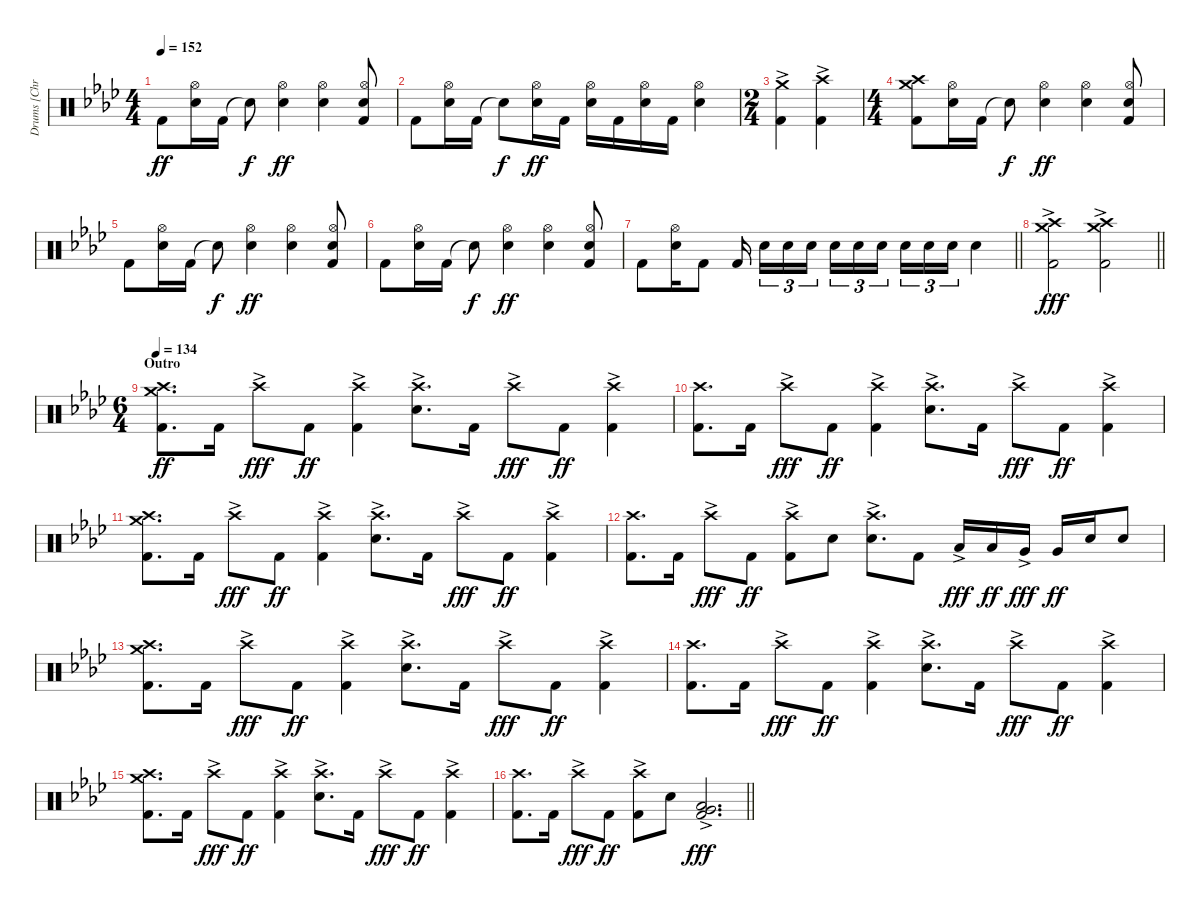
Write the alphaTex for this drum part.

\track ("Drums [Chris Hornbrook]" "Drums [Chr") {instrument percussion}
\staff {score}
\articulation defaults
\ts (4 4)
\tempo 152
\clef neutral
\ks fminor "Kick (hit) 2".8{dy ff}
("Hi-Hat (open)" "Electric Snare (hit)").16 "Kick (hit) 2".16 "Snare (hit)"{t}.8{dy f} ("Hi-Hat (open)" "Electric Snare (hit)").4{dy ff} ("Hi-Hat (open)" "Electric Snare (hit)").4 ("Hi-Hat (open)" "Electric Snare (hit)" "Kick (hit) 2").8 |
"Kick (hit) 2".8 ("Hi-Hat (open)" "Electric Snare (hit)").16 "Kick (hit) 2".16 "Snare (hit)"{t}.8{dy f} ("Hi-Hat (open)" "Electric Snare (hit)").16{dy ff} "Kick (hit) 2".16 ("Hi-Hat (open)" "Electric Snare (hit)").16 "Kick (hit) 2".16 ("Hi-Hat (open)" "Electric Snare (hit)").16 "Kick (hit) 2".16 ("Hi-Hat (open)" "Electric Snare (hit)").4 |
\ts (2 4)
("Crash medium (hit)"{ac} "Kick (hit) 2").4 ("Crash high (hit)"{ac} "Kick (hit) 2").4 |
\ts (4 4)
("Crash medium (hit)" "Crash high (hit)" "Kick (hit) 2").8 ("Hi-Hat (open)" "Electric Snare (hit)").16 "Kick (hit) 2".16 "Snare (hit)"{t}.8{dy f} ("Hi-Hat (open)" "Electric Snare (hit)").4{dy ff} ("Hi-Hat (open)" "Electric Snare (hit)").4 ("Hi-Hat (open)" "Electric Snare (hit)" "Kick (hit) 2").8 |
"Kick (hit) 2".8 ("Hi-Hat (open)" "Electric Snare (hit)").16 "Kick (hit) 2".16 "Snare (hit)"{t}.8{dy f} ("Hi-Hat (open)" "Electric Snare (hit)").4{dy ff} ("Hi-Hat (open)" "Electric Snare (hit)").4 ("Hi-Hat (open)" "Electric Snare (hit)" "Kick (hit) 2").8 |
"Kick (hit) 2".8 ("Hi-Hat (open)" "Electric Snare (hit)").16 "Kick (hit) 2".16 "Snare (hit)"{t}.8{dy f} ("Hi-Hat (open)" "Electric Snare (hit)").4{dy ff} ("Hi-Hat (open)" "Electric Snare (hit)").4 ("Hi-Hat (open)" "Electric Snare (hit)" "Kick (hit) 2").8 |
\barLineRight lightlight "Kick (hit) 2".8
("Hi-Hat (open)" "Electric Snare (hit)").16 "Kick (hit) 2".8 "Kick (hit) 2".16{beam splitsecondary} "Electric Snare (hit)".16{tu (3 2)} "Electric Snare (hit)".16{tu (3 2)} "Electric Snare (hit)".16{tu (3 2)} "Electric Snare (hit)".16{tu (3 2)} "Electric Snare (hit)".16{tu (3 2)} "Electric Snare (hit)".16{tu (3 2) beam splitsecondary} "Electric Snare (hit)".16{tu (3 2)} "Electric Snare (hit)".16{tu (3 2)} "Electric Snare (hit)".16{tu (3 2)} "Electric Snare (hit)".4 |
\section ("" "")
\barLineRight lightlight
("Crash medium (hit)"{ac} "Crash high (hit)"{ac} "Kick (hit) 2"{ac}).2{dy fff} ("Crash medium (hit)"{ac} "Crash high (hit)"{ac} "Kick (hit) 2"{ac}).2 |
\ts (6 4)
\section ("" "Outro")
\tempo 134
("Crash medium (hit)" "Crash high (hit)" "Kick (hit) 2").8{d dy ff} "Kick (hit) 2".16 "Crash high (hit)"{ac}.8{dy fff} "Kick (hit) 2".8{dy ff} ("Crash high (hit)"{ac} "Kick (hit) 2").4 ("Crash high (hit)"{ac} "Electric Snare (hit)").8{d} "Kick (hit) 2".16 "Crash high (hit)"{ac}.8{dy fff} "Kick (hit) 2".8{dy ff} ("Crash high (hit)"{ac} "Kick (hit) 2").4 |
("Crash high (hit)" "Kick (hit) 2").8{d} "Kick (hit) 2".16 "Crash high (hit)"{ac}.8{dy fff} "Kick (hit) 2".8{dy ff} ("Crash high (hit)"{ac} "Kick (hit) 2").4 ("Crash high (hit)"{ac} "Electric Snare (hit)").8{d} "Kick (hit) 2".16 "Crash high (hit)"{ac}.8{dy fff} "Kick (hit) 2".8{dy ff} ("Crash high (hit)"{ac} "Kick (hit) 2").4 |
("Crash medium (hit)" "Crash high (hit)" "Kick (hit) 2").8{d} "Kick (hit) 2".16 "Crash high (hit)"{ac}.8{dy fff} "Kick (hit) 2".8{dy ff} ("Crash high (hit)"{ac} "Kick (hit) 2").4 ("Crash high (hit)"{ac} "Electric Snare (hit)").8{d} "Kick (hit) 2".16 "Crash high (hit)"{ac}.8{dy fff} "Kick (hit) 2".8{dy ff} ("Crash high (hit)"{ac} "Kick (hit) 2").4 |
("Crash high (hit)" "Kick (hit) 2").8{d} "Kick (hit) 2".16 "Crash high (hit)"{ac}.8{dy fff} "Kick (hit) 2".8{dy ff} ("Crash high (hit)"{ac} "Kick (hit) 2").8 "Electric Snare (hit)".8 ("Crash high (hit)"{ac} "Electric Snare (hit)").8{d} "Kick (hit) 2".8 "Low Tom (hit)"{ac}.16{dy fff} "Low Tom (hit)".16{dy ff} "Very Low Tom (hit)"{ac}.16{dy fff} "Very Low Tom (hit)".16{dy ff} "Electric Snare (hit)".16 "Electric Snare (hit)".8 |
("Crash medium (hit)" "Crash high (hit)" "Kick (hit) 2").8{d} "Kick (hit) 2".16 "Crash high (hit)"{ac}.8{dy fff} "Kick (hit) 2".8{dy ff} ("Crash high (hit)"{ac} "Kick (hit) 2").4 ("Crash high (hit)"{ac} "Electric Snare (hit)").8{d} "Kick (hit) 2".16 "Crash high (hit)"{ac}.8{dy fff} "Kick (hit) 2".8{dy ff} ("Crash high (hit)"{ac} "Kick (hit) 2").4 |
("Crash high (hit)" "Kick (hit) 2").8{d} "Kick (hit) 2".16 "Crash high (hit)"{ac}.8{dy fff} "Kick (hit) 2".8{dy ff} ("Crash high (hit)"{ac} "Kick (hit) 2").4 ("Crash high (hit)"{ac} "Electric Snare (hit)").8{d} "Kick (hit) 2".16 "Crash high (hit)"{ac}.8{dy fff} "Kick (hit) 2".8{dy ff} ("Crash high (hit)"{ac} "Kick (hit) 2").4 |
("Crash medium (hit)" "Crash high (hit)" "Kick (hit) 2").8{d} "Kick (hit) 2".16 "Crash high (hit)"{ac}.8{dy fff} "Kick (hit) 2".8{dy ff} ("Crash high (hit)"{ac} "Kick (hit) 2").4 ("Crash high (hit)"{ac} "Electric Snare (hit)").8{d} "Kick (hit) 2".16 "Crash high (hit)"{ac}.8{dy fff} "Kick (hit) 2".8{dy ff} ("Crash high (hit)"{ac} "Kick (hit) 2").4 |
\barLineRight lightlight
("Crash high (hit)" "Kick (hit) 2").8{d} "Kick (hit) 2".16 "Crash high (hit)"{ac}.8{dy fff} "Kick (hit) 2".8{dy ff} ("Crash high (hit)"{ac} "Kick (hit) 2").8 "Electric Snare (hit)".8 ("Very Low Tom (hit)"{ac} "Low Floor Tom (hit)"{ac} "Kick (hit) 2"{ac}).2{d bu 60 dy fff}
